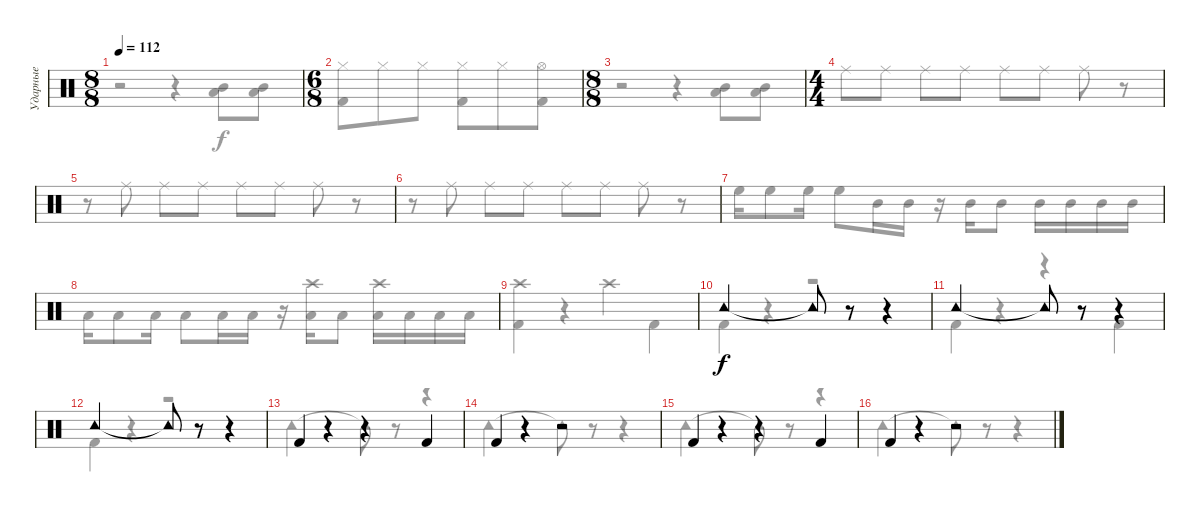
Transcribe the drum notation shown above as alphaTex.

\track ("Ударные" "Ударные") {instrument percussion}
\staff {score}
\articulation defaults
\voice
\ts (8 8)
\tempo 112
\clef neutral
\ks c
|
\ts (6 8)
|
\ts (8 8)
|
\ts (4 4)
|
|
|
|
|
|
"Tambourine (hit)".2 "Tambourine (hit)"{t}.8 r.8 r.4 |
"Tambourine (hit)".2 "Tambourine (hit)"{t}.8 r.8 r.4 |
"Tambourine (hit)".2 "Tambourine (hit)"{t}.8 r.8 r.4 |
"Kick (hit) 2".4 r.4 r.4 "Kick (hit) 2".4 |
"Kick (hit) 2".4 r.4 r.2 |
"Kick (hit) 2".4 r.4 r.4 "Kick (hit) 2".4 |
"Kick (hit) 2".4 r.4 r.2
\voice
\clef neutral
\ottava regular
\simile none
\ks c
r.2{dy f} r.4 ("Mid Tom (hit)" "Low Tom (hit)").8 ("Mid Tom (hit)" "Low Floor Tom (hit)").8 |
("Hi-Hat (closed)" "Kick (hit) 2").8 "Hi-Hat (closed)".8 "Hi-Hat (closed)".8 ("Hi-Hat (closed)" "Kick (hit) 2").8 "Hi-Hat (closed)".8 ("Hi-Hat (open)" "Kick (hit) 2").8 |
r.2 r.4 ("Mid Tom (hit)" "Low Tom (hit)").8 ("Mid Tom (hit)" "Low Floor Tom (hit)").8 |
"Ride (middle)".8 "Ride (middle)".8 "Ride (middle)".8 "Ride (middle)".8 "Ride (middle)".8 "Ride (middle)".8 "Ride (middle)".8 r.8 |
r.8 "Ride (middle)".8 "Ride (middle)".8 "Ride (middle)".8 "Ride (middle)".8 "Ride (middle)".8 "Ride (middle)".8 r.8 |
r.8 "Ride (middle)".8 "Ride (middle)".8 "Ride (middle)".8 "Ride (middle)".8 "Ride (middle)".8 "Ride (middle)".8 r.8 |
"High Floor Tom (hit)".16 "High Floor Tom (hit)".8 "High Floor Tom (hit)".16 "High Floor Tom (hit)".8 "Mid Tom (hit)".16 "Mid Tom (hit)".16 r.16 "Mid Tom (hit)".16 "Mid Tom (hit)".8 "Mid Tom (hit)".16 "Mid Tom (hit)".16 "Mid Tom (hit)".16 "Mid Tom (hit)".16 |
"Low Tom (hit)".16 "Low Tom (hit)".8 "Low Tom (hit)".16 "Low Tom (hit)".8 "Low Floor Tom (hit)".16 "Low Floor Tom (hit)".16 r.16 ("Crash high (hit)" "Low Floor Tom (hit)").16 "Low Floor Tom (hit)".8 ("Crash high (hit)" "Low Tom (hit)").16 "Low Tom (hit)".16 "Low Floor Tom (hit)".16 "Low Floor Tom (hit)".16 |
("Crash high (hit)" "Kick (hit) 2").4 r.4 "Crash high (hit)".4 "Kick (hit) 2".4 |
"Kick (hit) 2".4 r.4 r.2 |
"Kick (hit) 2".4 r.4 r.4 "Kick (hit) 2".4 |
"Kick (hit) 2".4 r.4 r.2 |
"Tambourine (hit)".2 "Tambourine (hit)"{t}.8 r.8 r.4 |
"Tambourine (hit)".2 "Tambourine (hit)"{t}.8 r.8 r.4 |
"Tambourine (hit)".2 "Tambourine (hit)"{t}.8 r.8 r.4 |
"Tambourine (hit)".2 "Tambourine (hit)"{t}.8 r.8 r.4
